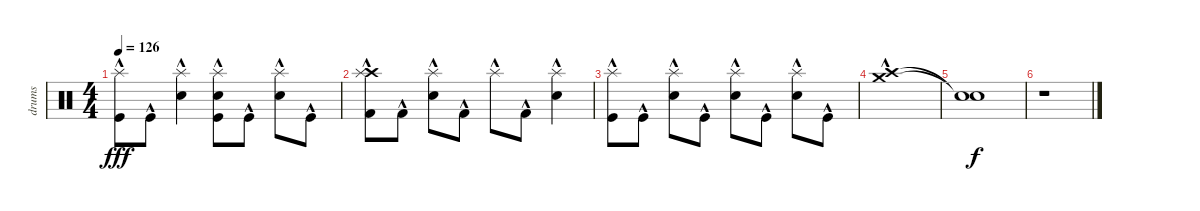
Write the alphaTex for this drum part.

\track ("drums" "drums") {instrument percussion}
\staff {score}
\articulation defaults
\ts (4 4)
\tempo 126
\clef neutral
\ks c
("Splash (hit)"{hac} "Kick (hit)"{hac}).8{dy fff} "Kick (hit)"{hac}.8 ("Electric Snare (hit)"{hac} "Splash (hit)"{hac}).4 ("Electric Snare (hit)"{hac} "Splash (hit)"{hac} "Kick (hit)"{hac}).8 "Kick (hit)"{hac}.8 ("Electric Snare (hit)"{hac} "Splash (hit)"{hac}).8 "Kick (hit)"{hac}.8 |
("Crash high (hit)"{hac} "Splash (hit)"{hac} "Kick (hit) 2"{hac}).8 "Kick (hit) 2"{hac}.8 ("Electric Snare (hit)"{hac} "Splash (hit)"{hac}).8 "Kick (hit) 2"{hac}.8 "Splash (hit)"{hac}.8 "Kick (hit) 2"{hac}.8 ("Electric Snare (hit)"{hac} "Splash (hit)"{hac}).4 |
("Splash (hit)"{hac} "Kick (hit)"{hac}).8 "Kick (hit)"{hac}.8 ("Electric Snare (hit)"{hac} "Splash (hit)"{hac}).8 "Kick (hit)"{hac}.8 ("Electric Snare (hit)"{hac} "Splash (hit)"{hac}).8 "Kick (hit)"{hac}.8 ("Electric Snare (hit)"{hac} "Splash (hit)"{hac}).8 "Kick (hit)"{hac}.8 |
("Crash medium (hit)"{hac} "Crash high (hit)"{hac}).1 |
("Snare (hit)"{t} "Snare (hit)"{t}).1{dy f} |
r.1
